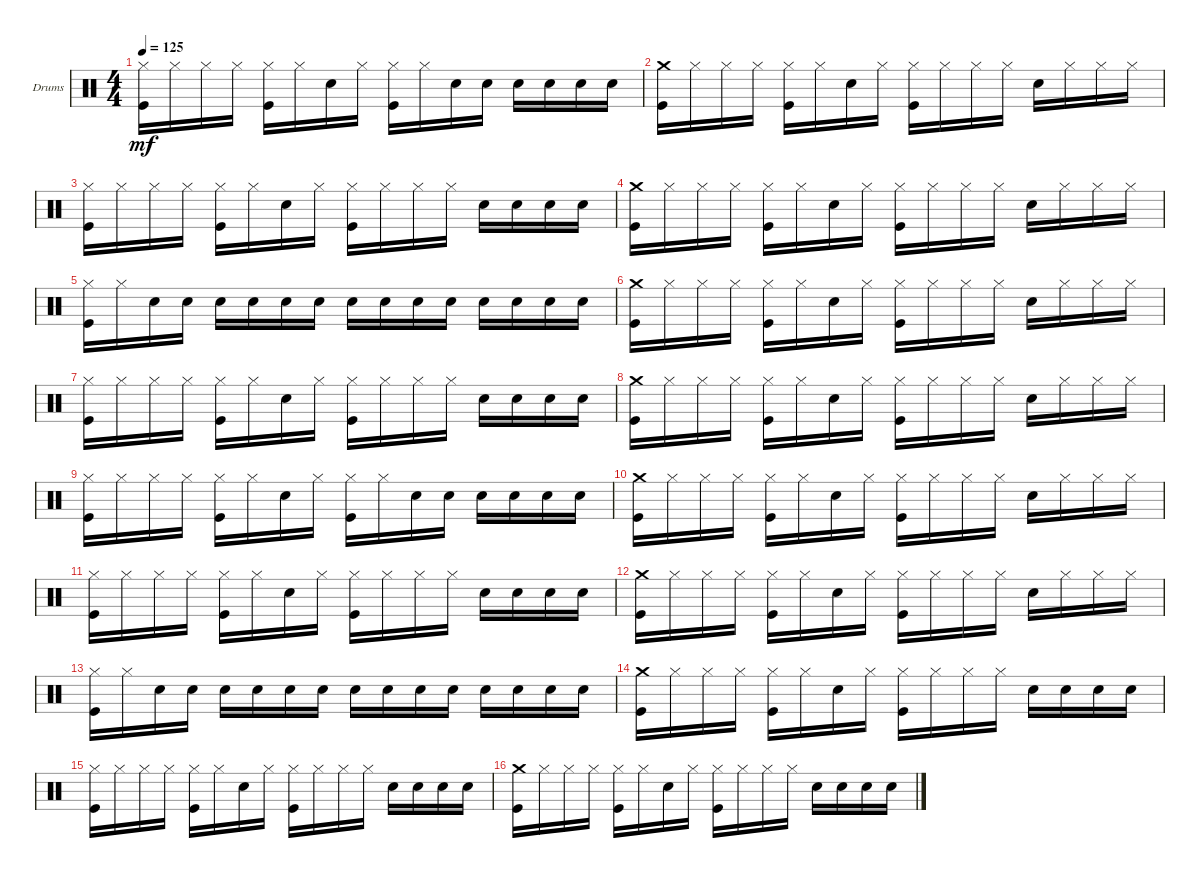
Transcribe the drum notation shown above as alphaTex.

\defaultSystemsLayout 4
\bracketExtendMode groupsimilarinstruments
\firstSystemTrackNameOrientation horizontal
\otherSystemsTrackNameOrientation horizontal
\track ("Drumkit" "Drums") {instrument percussion}
\staff {score}
\articulation defaults
\ts (4 4)
\tempo 125
\clef neutral
\scale
0.333333
\ks c
("Kick (hit)" "Hi-Hat (closed)").16{dy mf} "Hi-Hat (closed)".16 "Hi-Hat (closed)".16 "Hi-Hat (closed)".16 ("Kick (hit)" "Hi-Hat (closed)").16 "Hi-Hat (closed)".16 "Snare (hit) 2".16 "Hi-Hat (closed)".16 ("Hi-Hat (closed)" "Kick (hit)").16 "Hi-Hat (closed)".16 "Snare (hit) 2".16 "Snare (hit) 2".16 "Snare (hit) 2".16 "Snare (hit) 2".16 "Snare (hit) 2".16 "Snare (hit) 2".16 |
\scale
0.333333 ("Kick (hit)" "Crash medium (hit)").16 "Hi-Hat (closed)".16 "Hi-Hat (closed)".16 "Hi-Hat (closed)".16 ("Kick (hit)" "Hi-Hat (closed)").16 "Hi-Hat (closed)".16 "Snare (hit) 2".16 "Hi-Hat (closed)".16 ("Hi-Hat (closed)" "Kick (hit)").16 "Hi-Hat (closed)".16 "Hi-Hat (closed)".16 "Hi-Hat (closed)".16 "Snare (hit) 2".16 "Hi-Hat (closed)".16 "Hi-Hat (closed)".16 "Hi-Hat (closed)".16 |
\scale
0.333333 ("Kick (hit)" "Hi-Hat (closed)").16 "Hi-Hat (closed)".16 "Hi-Hat (closed)".16 "Hi-Hat (closed)".16 ("Kick (hit)" "Hi-Hat (closed)").16 "Hi-Hat (closed)".16 "Snare (hit) 2".16 "Hi-Hat (closed)".16 ("Hi-Hat (closed)" "Kick (hit)").16 "Hi-Hat (closed)".16 "Hi-Hat (closed)".16 "Hi-Hat (closed)".16 "Snare (hit) 2".16 "Snare (hit) 2".16 "Snare (hit) 2".16 "Snare (hit) 2".16 |
\scale
0.333333 ("Kick (hit)" "Crash medium (hit)").16 "Hi-Hat (closed)".16 "Hi-Hat (closed)".16 "Hi-Hat (closed)".16 ("Kick (hit)" "Hi-Hat (closed)").16 "Hi-Hat (closed)".16 "Snare (hit) 2".16 "Hi-Hat (closed)".16 ("Hi-Hat (closed)" "Kick (hit)").16 "Hi-Hat (closed)".16 "Hi-Hat (closed)".16 "Hi-Hat (closed)".16 "Snare (hit) 2".16 "Hi-Hat (closed)".16 "Hi-Hat (closed)".16 "Hi-Hat (closed)".16 |
\scale
0.333333 ("Hi-Hat (closed)" "Kick (hit)").16 "Hi-Hat (closed)".16 "Snare (hit) 2".16 "Snare (hit) 2".16 "Snare (hit) 2".16 "Snare (hit) 2".16 "Snare (hit) 2".16 "Snare (hit) 2".16 "Snare (hit) 2".16 "Snare (hit) 2".16 "Snare (hit) 2".16 "Snare (hit) 2".16 "Snare (hit) 2".16 "Snare (hit) 2".16 "Snare (hit) 2".16 "Snare (hit) 2".16 |
\scale
0.333333 ("Kick (hit)" "Crash medium (hit)").16 "Hi-Hat (closed)".16 "Hi-Hat (closed)".16 "Hi-Hat (closed)".16 ("Kick (hit)" "Hi-Hat (closed)").16 "Hi-Hat (closed)".16 "Snare (hit) 2".16 "Hi-Hat (closed)".16 ("Hi-Hat (closed)" "Kick (hit)").16 "Hi-Hat (closed)".16 "Hi-Hat (closed)".16 "Hi-Hat (closed)".16 "Snare (hit) 2".16 "Hi-Hat (closed)".16 "Hi-Hat (closed)".16 "Hi-Hat (closed)".16 |
\scale
0.333333 ("Kick (hit)" "Hi-Hat (closed)").16 "Hi-Hat (closed)".16 "Hi-Hat (closed)".16 "Hi-Hat (closed)".16 ("Kick (hit)" "Hi-Hat (closed)").16 "Hi-Hat (closed)".16 "Snare (hit) 2".16 "Hi-Hat (closed)".16 ("Hi-Hat (closed)" "Kick (hit)").16 "Hi-Hat (closed)".16 "Hi-Hat (closed)".16 "Hi-Hat (closed)".16 "Snare (hit) 2".16 "Snare (hit) 2".16 "Snare (hit) 2".16 "Snare (hit) 2".16 |
\scale
0.333333 ("Kick (hit)" "Crash medium (hit)").16 "Hi-Hat (closed)".16 "Hi-Hat (closed)".16 "Hi-Hat (closed)".16 ("Kick (hit)" "Hi-Hat (closed)").16 "Hi-Hat (closed)".16 "Snare (hit) 2".16 "Hi-Hat (closed)".16 ("Hi-Hat (closed)" "Kick (hit)").16 "Hi-Hat (closed)".16 "Hi-Hat (closed)".16 "Hi-Hat (closed)".16 "Snare (hit) 2".16 "Hi-Hat (closed)".16 "Hi-Hat (closed)".16 "Hi-Hat (closed)".16 |
\scale
0.333333 ("Kick (hit)" "Hi-Hat (closed)").16 "Hi-Hat (closed)".16 "Hi-Hat (closed)".16 "Hi-Hat (closed)".16 ("Kick (hit)" "Hi-Hat (closed)").16 "Hi-Hat (closed)".16 "Snare (hit) 2".16 "Hi-Hat (closed)".16 ("Hi-Hat (closed)" "Kick (hit)").16 "Hi-Hat (closed)".16 "Snare (hit) 2".16 "Snare (hit) 2".16 "Snare (hit) 2".16 "Snare (hit) 2".16 "Snare (hit) 2".16 "Snare (hit) 2".16 |
\scale
0.333333 ("Kick (hit)" "Crash medium (hit)").16 "Hi-Hat (closed)".16 "Hi-Hat (closed)".16 "Hi-Hat (closed)".16 ("Kick (hit)" "Hi-Hat (closed)").16 "Hi-Hat (closed)".16 "Snare (hit) 2".16 "Hi-Hat (closed)".16 ("Hi-Hat (closed)" "Kick (hit)").16 "Hi-Hat (closed)".16 "Hi-Hat (closed)".16 "Hi-Hat (closed)".16 "Snare (hit) 2".16 "Hi-Hat (closed)".16 "Hi-Hat (closed)".16 "Hi-Hat (closed)".16 |
\scale
0.333333 ("Kick (hit)" "Hi-Hat (closed)").16 "Hi-Hat (closed)".16 "Hi-Hat (closed)".16 "Hi-Hat (closed)".16 ("Kick (hit)" "Hi-Hat (closed)").16 "Hi-Hat (closed)".16 "Snare (hit) 2".16 "Hi-Hat (closed)".16 ("Hi-Hat (closed)" "Kick (hit)").16 "Hi-Hat (closed)".16 "Hi-Hat (closed)".16 "Hi-Hat (closed)".16 "Snare (hit) 2".16 "Snare (hit) 2".16 "Snare (hit) 2".16 "Snare (hit) 2".16 |
\scale
0.333333 ("Kick (hit)" "Crash medium (hit)").16 "Hi-Hat (closed)".16 "Hi-Hat (closed)".16 "Hi-Hat (closed)".16 ("Kick (hit)" "Hi-Hat (closed)").16 "Hi-Hat (closed)".16 "Snare (hit) 2".16 "Hi-Hat (closed)".16 ("Hi-Hat (closed)" "Kick (hit)").16 "Hi-Hat (closed)".16 "Hi-Hat (closed)".16 "Hi-Hat (closed)".16 "Snare (hit) 2".16 "Hi-Hat (closed)".16 "Hi-Hat (closed)".16 "Hi-Hat (closed)".16 |
\scale
0.333333 ("Hi-Hat (closed)" "Kick (hit)").16 "Hi-Hat (closed)".16 "Snare (hit) 2".16 "Snare (hit) 2".16 "Snare (hit) 2".16 "Snare (hit) 2".16 "Snare (hit) 2".16 "Snare (hit) 2".16 "Snare (hit) 2".16 "Snare (hit) 2".16 "Snare (hit) 2".16 "Snare (hit) 2".16 "Snare (hit) 2".16 "Snare (hit) 2".16 "Snare (hit) 2".16 "Snare (hit) 2".16 |
\scale
0.333333 ("Kick (hit)" "Crash medium (hit)").16 "Hi-Hat (closed)".16 "Hi-Hat (closed)".16 "Hi-Hat (closed)".16 ("Kick (hit)" "Hi-Hat (closed)").16 "Hi-Hat (closed)".16 "Snare (hit) 2".16 "Hi-Hat (closed)".16 ("Hi-Hat (closed)" "Kick (hit)").16 "Hi-Hat (closed)".16 "Hi-Hat (closed)".16 "Hi-Hat (closed)".16 "Snare (hit) 2".16 "Snare (hit) 2".16 "Snare (hit) 2".16 "Snare (hit) 2".16 |
\scale
0.333333 ("Kick (hit)" "Hi-Hat (closed)").16 "Hi-Hat (closed)".16 "Hi-Hat (closed)".16 "Hi-Hat (closed)".16 ("Kick (hit)" "Hi-Hat (closed)").16 "Hi-Hat (closed)".16 "Snare (hit) 2".16 "Hi-Hat (closed)".16 ("Hi-Hat (closed)" "Kick (hit)").16 "Hi-Hat (closed)".16 "Hi-Hat (closed)".16 "Hi-Hat (closed)".16 "Snare (hit) 2".16 "Snare (hit) 2".16 "Snare (hit) 2".16 "Snare (hit) 2".16 |
\scale
0.333333 ("Kick (hit)" "Crash medium (hit)").16 "Hi-Hat (closed)".16 "Hi-Hat (closed)".16 "Hi-Hat (closed)".16 ("Kick (hit)" "Hi-Hat (closed)").16 "Hi-Hat (closed)".16 "Snare (hit) 2".16 "Hi-Hat (closed)".16 ("Hi-Hat (closed)" "Kick (hit)").16 "Hi-Hat (closed)".16 "Hi-Hat (closed)".16 "Hi-Hat (closed)".16 "Snare (hit) 2".16 "Snare (hit) 2".16 "Snare (hit) 2".16 "Snare (hit) 2".16
